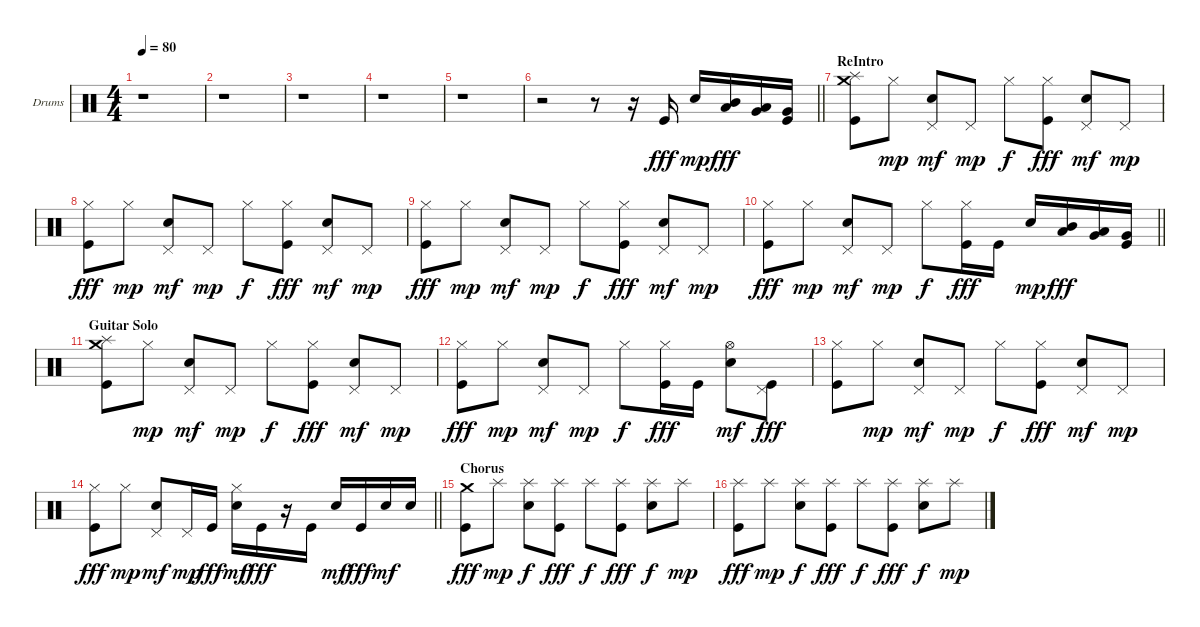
\bracketExtendMode groupsimilarinstruments
\firstSystemTrackNameOrientation horizontal
\otherSystemsTrackNameOrientation horizontal
\track ("Drumkit" "Drums") {instrument percussion}
\staff {score}
\articulation defaults
\ts (4 4)
\tempo 80
\clef neutral
\ks c
r.1{dy mp} |
r.1 |
r.1 |
r.1 |
r.1 |
\barLineRight lightlight
r.2 r.8 r.16 "Kick (hit)".16{dy fff} "Snare (hit) 2".16{dy mp} ("Low Tom (hit)" "Mid Tom (hit)").16{dy fff} ("Very Low Tom (hit)" "Low Tom (hit)").16 ("Kick (hit)" "Very Low Tom (hit)").16 |
\section ("" "ReIntro")
("Kick (hit)" "Crash medium (hit)" "Splash (hit)").8 "Hi-Hat (closed)".8{dy mp} ("Pedal Hi-Hat (hit)" "Snare (hit) 2").8{dy mf} "Pedal Hi-Hat (hit)".8{dy mp} "Hi-Hat (closed)".8{dy f} ("Kick (hit)" "Hi-Hat (closed)").8{dy fff} ("Pedal Hi-Hat (hit)" "Snare (hit) 2").8{dy mf} "Pedal Hi-Hat (hit)".8{dy mp} |
("Kick (hit)" "Hi-Hat (closed)").8{dy fff} "Hi-Hat (closed)".8{dy mp} ("Pedal Hi-Hat (hit)" "Snare (hit) 2").8{dy mf} "Pedal Hi-Hat (hit)".8{dy mp} "Hi-Hat (closed)".8{dy f} ("Kick (hit)" "Hi-Hat (closed)").8{dy fff} ("Pedal Hi-Hat (hit)" "Snare (hit) 2").8{dy mf} "Pedal Hi-Hat (hit)".8{dy mp} |
("Kick (hit)" "Hi-Hat (closed)").8{dy fff} "Hi-Hat (closed)".8{dy mp} ("Pedal Hi-Hat (hit)" "Snare (hit) 2").8{dy mf} "Pedal Hi-Hat (hit)".8{dy mp} "Hi-Hat (closed)".8{dy f} ("Kick (hit)" "Hi-Hat (closed)").8{dy fff} ("Pedal Hi-Hat (hit)" "Snare (hit) 2").8{dy mf} "Pedal Hi-Hat (hit)".8{dy mp} |
\barLineRight lightlight
("Kick (hit)" "Hi-Hat (closed)").8{dy fff} "Hi-Hat (closed)".8{dy mp} ("Pedal Hi-Hat (hit)" "Snare (hit) 2").8{dy mf} "Pedal Hi-Hat (hit)".8{dy mp} "Hi-Hat (closed)".8{dy f} ("Kick (hit)" "Hi-Hat (closed)").16{dy fff} "Kick (hit)".16 "Snare (hit) 2".16{dy mp} ("Low Tom (hit)" "Mid Tom (hit)").16{dy fff} ("Very Low Tom (hit)" "Low Tom (hit)").16 ("Kick (hit)" "Very Low Tom (hit)").16 |
\section ("" "Guitar Solo")
("Kick (hit)" "Crash medium (hit)" "Splash (hit)").8 "Hi-Hat (closed)".8{dy mp} ("Pedal Hi-Hat (hit)" "Snare (hit) 2").8{dy mf} "Pedal Hi-Hat (hit)".8{dy mp} "Hi-Hat (closed)".8{dy f} ("Kick (hit)" "Hi-Hat (closed)").8{dy fff} ("Pedal Hi-Hat (hit)" "Snare (hit) 2").8{dy mf} "Pedal Hi-Hat (hit)".8{dy mp} |
("Kick (hit)" "Hi-Hat (closed)").8{dy fff} "Hi-Hat (closed)".8{dy mp} ("Pedal Hi-Hat (hit)" "Snare (hit) 2").8{dy mf} "Pedal Hi-Hat (hit)".8{dy mp} "Hi-Hat (closed)".8{dy f} ("Kick (hit)" "Hi-Hat (closed)").16{dy fff} "Kick (hit)".16 ("Hi-Hat (open)" "Snare (hit) 2").8{dy mf} ("Kick (hit)" "Pedal Hi-Hat (hit)").8{dy fff} |
("Kick (hit)" "Hi-Hat (closed)").8 "Hi-Hat (closed)".8{dy mp} ("Pedal Hi-Hat (hit)" "Snare (hit) 2").8{dy mf} "Pedal Hi-Hat (hit)".8{dy mp} "Hi-Hat (closed)".8{dy f} ("Kick (hit)" "Hi-Hat (closed)").8{dy fff} ("Pedal Hi-Hat (hit)" "Snare (hit) 2").8{dy mf} "Pedal Hi-Hat (hit)".8{dy mp} |
\barLineRight lightlight
("Kick (hit)" "Hi-Hat (closed)").8{dy fff} "Hi-Hat (closed)".8{dy mp} ("Pedal Hi-Hat (hit)" "Snare (hit) 2").8{dy mf} "Pedal Hi-Hat (hit)".16{dy mp} "Kick (hit)".16{dy fff} ("Hi-Hat (closed)" "Snare (hit) 2").16{dy mf} "Kick (hit)".16{dy fff} r.16 "Kick (hit)".16 "Snare (hit) 2".16{dy mf} "Kick (hit)".16{dy fff} "Snare (hit) 2".16{dy mf} "Snare (hit) 2".16 |
\section ("" "Chorus")
("Kick (hit)" "Crash medium (hit)").8{dy fff} "Splash (hit)".8{dy mp} ("Splash (hit)" "Snare (hit) 2").8{dy f} ("Kick (hit)" "Splash (hit)").8{dy fff} "Splash (hit)".8{dy f} ("Kick (hit)" "Splash (hit)").8{dy fff} ("Splash (hit)" "Snare (hit) 2").8{dy f} "Splash (hit)".8{dy mp} |
("Kick (hit)" "Splash (hit)").8{dy fff} "Splash (hit)".8{dy mp} ("Splash (hit)" "Snare (hit) 2").8{dy f} ("Kick (hit)" "Splash (hit)").8{dy fff} "Splash (hit)".8{dy f} ("Kick (hit)" "Splash (hit)").8{dy fff} ("Splash (hit)" "Snare (hit) 2").8{dy f} "Splash (hit)".8{dy mp}
